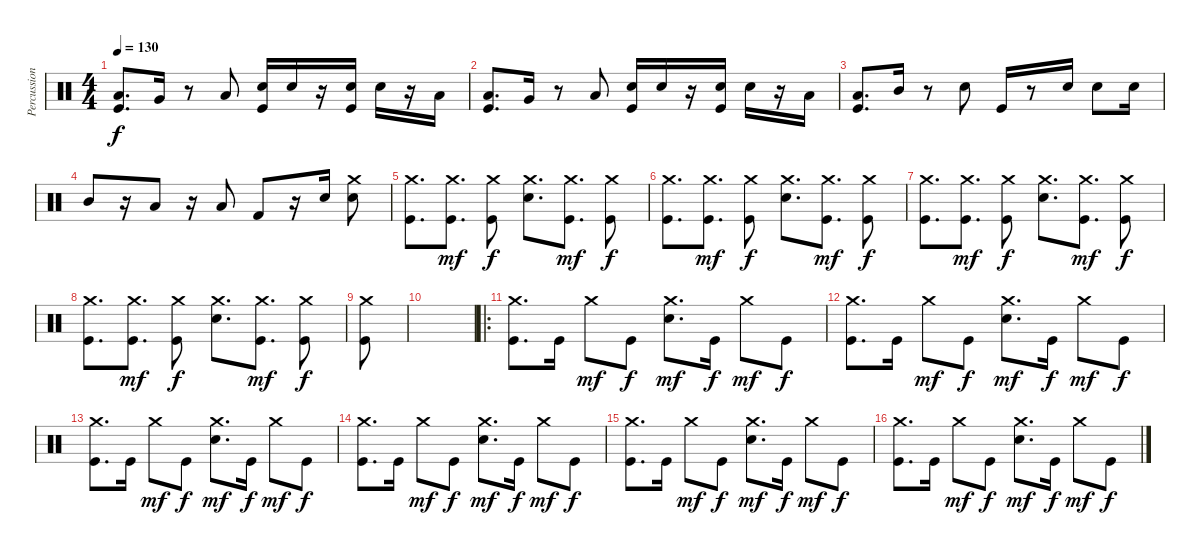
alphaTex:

\track ("Percussion" "Percussion") {instrument percussion}
\staff {score}
\articulation defaults
\ts (4 4)
\tempo 130
\clef neutral
\ks c
("Low Tom (hit)" "Kick (hit)").8{d dy f} "Very Low Tom (hit)".16 r.8 "Low Floor Tom (hit)".8 ("Snare (hit) 2" "Kick (hit)").16 "Snare (hit) 2".16 r.16 ("Snare (hit) 2" "Kick (hit)").16 "Snare (hit) 2".16 r.16 "Low Floor Tom (hit)".16 |
("Low Tom (hit)" "Kick (hit)").8{d} "Very Low Tom (hit)".16 r.8 "Low Floor Tom (hit)".8 ("Snare (hit) 2" "Kick (hit)").16 "Snare (hit) 2".16 r.16 ("Snare (hit) 2" "Kick (hit)").16 "Snare (hit) 2".16 r.16 "Low Floor Tom (hit)".16 |
("Low Tom (hit)" "Kick (hit)").8{d} "Mid Tom (hit)".16 r.8 "Snare (hit) 2".8 "Kick (hit)".16 r.8 "Snare (hit) 2".16 "Snare (hit) 2".8 "Snare (hit) 2".16 |
"Mid Tom (hit)".8 r.16 "Low Tom (hit)".8 r.16 "Low Floor Tom (hit)".8 "Kick (hit) 2".8 r.16 "Snare (hit) 2".16 ("Crash medium (hit)" "Snare (hit) 2").8 |
("Crash medium (hit)" "Kick (hit)").8{d} ("Crash medium (hit)" "Kick (hit)").8{d dy mf} ("Crash medium (hit)" "Kick (hit)").8{dy f} ("Crash medium (hit)" "Snare (hit) 2").8{d} ("Crash medium (hit)" "Kick (hit)").8{d dy mf} ("Crash medium (hit)" "Kick (hit)").8{dy f} |
("Crash medium (hit)" "Kick (hit)").8{d} ("Crash medium (hit)" "Kick (hit)").8{d dy mf} ("Crash medium (hit)" "Kick (hit)").8{dy f} ("Crash medium (hit)" "Snare (hit) 2").8{d} ("Crash medium (hit)" "Kick (hit)").8{d dy mf} ("Crash medium (hit)" "Kick (hit)").8{dy f} |
("Crash medium (hit)" "Kick (hit)").8{d} ("Crash medium (hit)" "Kick (hit)").8{d dy mf} ("Crash medium (hit)" "Kick (hit)").8{dy f} ("Crash medium (hit)" "Snare (hit) 2").8{d} ("Crash medium (hit)" "Kick (hit)").8{d dy mf} ("Crash medium (hit)" "Kick (hit)").8{dy f} |
("Crash medium (hit)" "Kick (hit)").8{d} ("Crash medium (hit)" "Kick (hit)").8{d dy mf} ("Crash medium (hit)" "Kick (hit)").8{dy f} ("Crash medium (hit)" "Snare (hit) 2").8{d} ("Crash medium (hit)" "Kick (hit)").8{d dy mf} ("Crash medium (hit)" "Kick (hit)").8{dy f} |
("Crash medium (hit)" "Kick (hit)").8 |
|
\ro
("Crash medium (hit)" "Kick (hit)").8{d} "Kick (hit)".16 "Crash medium (hit)".8{dy mf} "Kick (hit)".8{dy f} ("Crash medium (hit)" "Snare (hit) 2").8{d dy mf} "Kick (hit)".16{dy f} "Crash medium (hit)".8{dy mf} "Kick (hit)".8{dy f} |
("Crash medium (hit)" "Kick (hit)").8{d} "Kick (hit)".16 "Crash medium (hit)".8{dy mf} "Kick (hit)".8{dy f} ("Crash medium (hit)" "Snare (hit) 2").8{d dy mf} "Kick (hit)".16{dy f} "Crash medium (hit)".8{dy mf} "Kick (hit)".8{dy f} |
("Crash medium (hit)" "Kick (hit)").8{d} "Kick (hit)".16 "Crash medium (hit)".8{dy mf} "Kick (hit)".8{dy f} ("Crash medium (hit)" "Snare (hit) 2").8{d dy mf} "Kick (hit)".16{dy f} "Crash medium (hit)".8{dy mf} "Kick (hit)".8{dy f} |
("Crash medium (hit)" "Kick (hit)").8{d} "Kick (hit)".16 "Crash medium (hit)".8{dy mf} "Kick (hit)".8{dy f} ("Crash medium (hit)" "Snare (hit) 2").8{d dy mf} "Kick (hit)".16{dy f} "Crash medium (hit)".8{dy mf} "Kick (hit)".8{dy f} |
("Crash medium (hit)" "Kick (hit)").8{d} "Kick (hit)".16 "Crash medium (hit)".8{dy mf} "Kick (hit)".8{dy f} ("Crash medium (hit)" "Snare (hit) 2").8{d dy mf} "Kick (hit)".16{dy f} "Crash medium (hit)".8{dy mf} "Kick (hit)".8{dy f} |
("Crash medium (hit)" "Kick (hit)").8{d} "Kick (hit)".16 "Crash medium (hit)".8{dy mf} "Kick (hit)".8{dy f} ("Crash medium (hit)" "Snare (hit) 2").8{d dy mf} "Kick (hit)".16{dy f} "Crash medium (hit)".8{dy mf} "Kick (hit)".8{dy f}
